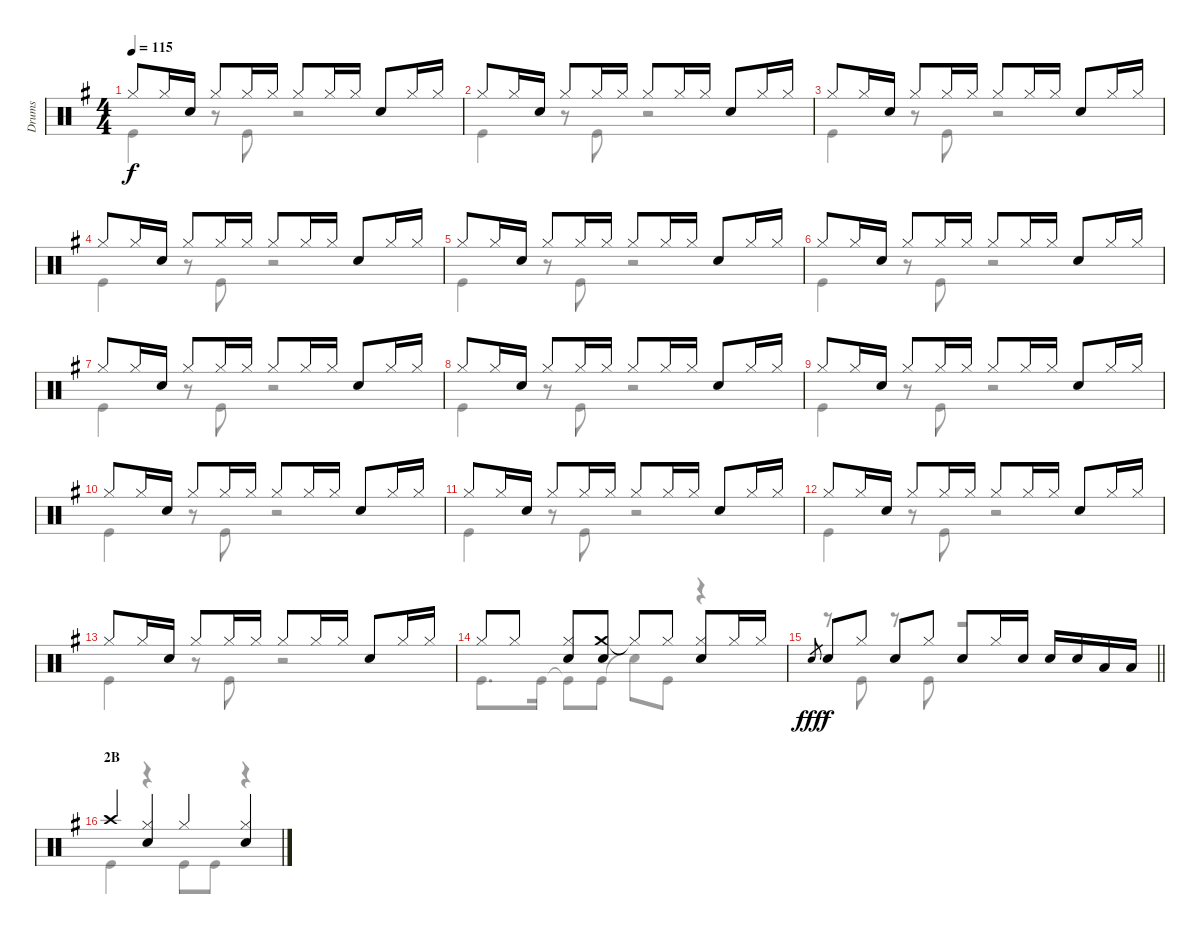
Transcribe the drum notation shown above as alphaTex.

\track ("Drums" "Drums") {instrument percussion}
\staff {score}
\articulation defaults
\voice
\ts (4 4)
\tempo 115
\clef neutral
\ks g "Hi-Hat (closed)".8{dy f} "Hi-Hat (closed)".16 "Snare (hit) 2".16 "Hi-Hat (closed)".8 "Hi-Hat (closed)".16 "Hi-Hat (closed)".16 "Hi-Hat (closed)".8 "Hi-Hat (closed)".16 "Hi-Hat (closed)".16 "Snare (hit) 2".8 "Hi-Hat (closed)".16 "Hi-Hat (closed)".16
|
"Hi-Hat (closed)".8 "Hi-Hat (closed)".16 "Snare (hit) 2".16 "Hi-Hat (closed)".8 "Hi-Hat (closed)".16 "Hi-Hat (closed)".16 "Hi-Hat (closed)".8 "Hi-Hat (closed)".16 "Hi-Hat (closed)".16 "Snare (hit) 2".8 "Hi-Hat (closed)".16 "Hi-Hat (closed)".16 |
"Hi-Hat (closed)".8 "Hi-Hat (closed)".16 "Snare (hit) 2".16 "Hi-Hat (closed)".8 "Hi-Hat (closed)".16 "Hi-Hat (closed)".16 "Hi-Hat (closed)".8 "Hi-Hat (closed)".16 "Hi-Hat (closed)".16 "Snare (hit) 2".8 "Hi-Hat (closed)".16 "Hi-Hat (closed)".16 |
"Hi-Hat (closed)".8 "Hi-Hat (closed)".16 "Snare (hit) 2".16 "Hi-Hat (closed)".8 "Hi-Hat (closed)".16 "Hi-Hat (closed)".16 "Hi-Hat (closed)".8 "Hi-Hat (closed)".16 "Hi-Hat (closed)".16 "Snare (hit) 2".8 "Hi-Hat (closed)".16 "Hi-Hat (closed)".16 |
"Hi-Hat (closed)".8 "Hi-Hat (closed)".16 "Snare (hit) 2".16 "Hi-Hat (closed)".8 "Hi-Hat (closed)".16 "Hi-Hat (closed)".16 "Hi-Hat (closed)".8 "Hi-Hat (closed)".16 "Hi-Hat (closed)".16 "Snare (hit) 2".8 "Hi-Hat (closed)".16 "Hi-Hat (closed)".16 |
"Hi-Hat (closed)".8 "Hi-Hat (closed)".16 "Snare (hit) 2".16 "Hi-Hat (closed)".8 "Hi-Hat (closed)".16 "Hi-Hat (closed)".16 "Hi-Hat (closed)".8 "Hi-Hat (closed)".16 "Hi-Hat (closed)".16 "Snare (hit) 2".8 "Hi-Hat (closed)".16 "Hi-Hat (closed)".16 |
"Hi-Hat (closed)".8 "Hi-Hat (closed)".16 "Snare (hit) 2".16 "Hi-Hat (closed)".8 "Hi-Hat (closed)".16 "Hi-Hat (closed)".16 "Hi-Hat (closed)".8 "Hi-Hat (closed)".16 "Hi-Hat (closed)".16 "Snare (hit) 2".8 "Hi-Hat (closed)".16 "Hi-Hat (closed)".16 |
"Hi-Hat (closed)".8 "Hi-Hat (closed)".16 "Snare (hit) 2".16 "Hi-Hat (closed)".8 "Hi-Hat (closed)".16 "Hi-Hat (closed)".16 "Hi-Hat (closed)".8 "Hi-Hat (closed)".16 "Hi-Hat (closed)".16 "Snare (hit) 2".8 "Hi-Hat (closed)".16 "Hi-Hat (closed)".16 |
"Hi-Hat (closed)".8 "Hi-Hat (closed)".16 "Snare (hit) 2".16 "Hi-Hat (closed)".8 "Hi-Hat (closed)".16 "Hi-Hat (closed)".16 "Hi-Hat (closed)".8 "Hi-Hat (closed)".16 "Hi-Hat (closed)".16 "Snare (hit) 2".8 "Hi-Hat (closed)".16 "Hi-Hat (closed)".16 |
"Hi-Hat (closed)".8 "Hi-Hat (closed)".16 "Snare (hit) 2".16 "Hi-Hat (closed)".8 "Hi-Hat (closed)".16 "Hi-Hat (closed)".16 "Hi-Hat (closed)".8 "Hi-Hat (closed)".16 "Hi-Hat (closed)".16 "Snare (hit) 2".8 "Hi-Hat (closed)".16 "Hi-Hat (closed)".16 |
"Hi-Hat (closed)".8 "Hi-Hat (closed)".16 "Snare (hit) 2".16 "Hi-Hat (closed)".8 "Hi-Hat (closed)".16 "Hi-Hat (closed)".16 "Hi-Hat (closed)".8 "Hi-Hat (closed)".16 "Hi-Hat (closed)".16 "Snare (hit) 2".8 "Hi-Hat (closed)".16 "Hi-Hat (closed)".16 |
"Hi-Hat (closed)".8 "Hi-Hat (closed)".16 "Snare (hit) 2".16 "Hi-Hat (closed)".8 "Hi-Hat (closed)".16 "Hi-Hat (closed)".16 "Hi-Hat (closed)".8 "Hi-Hat (closed)".16 "Hi-Hat (closed)".16 "Snare (hit) 2".8 "Hi-Hat (closed)".16 "Hi-Hat (closed)".16 |
"Hi-Hat (closed)".8 "Hi-Hat (closed)".16 "Snare (hit) 2".16 "Hi-Hat (closed)".8 "Hi-Hat (closed)".16 "Hi-Hat (closed)".16 "Hi-Hat (closed)".8 "Hi-Hat (closed)".16 "Hi-Hat (closed)".16 "Snare (hit) 2".8 "Hi-Hat (closed)".16 "Hi-Hat (closed)".16 |
"Hi-Hat (closed)".8 "Hi-Hat (closed)".8 ("Hi-Hat (closed)" "Snare (hit) 2").8 ("Crash medium (hit)" "Snare (hit) 2").8 "Hi-Hat (closed)"{t}.8 "Hi-Hat (closed)".8 ("Hi-Hat (closed)" "Snare (hit) 2").8 "Hi-Hat (closed)".16 "Hi-Hat (closed)".16 |
\barLineRight lightlight "Snare (hit) 2".8{gr dy fff} "Snare (hit) 2".8{dy f} "Hi-Hat (closed)".8 "Snare (hit) 2".8 "Hi-Hat (closed)".8 "Snare (hit) 2".8 "Hi-Hat (closed)".16 "Snare (hit) 2".16 "Snare (hit) 2".16 "Snare (hit) 2".16 "Low Tom (hit)".16 "Low Tom (hit)".16
|
\section ("" "2B")
"Crash high (hit)".4 ("Hi-Hat (closed)" "Snare (hit) 2").4 "Hi-Hat (closed)".4 ("Hi-Hat (closed)" "Snare (hit) 2").4
\voice
\clef neutral
\ottava regular
\simile none
\ks g "Kick (hit)".4{dy f}
r.8 "Kick (hit)".8 r.2 |
"Kick (hit)".4 r.8 "Kick (hit)".8 r.2 |
"Kick (hit)".4 r.8 "Kick (hit)".8 r.2 |
"Kick (hit)".4 r.8 "Kick (hit)".8 r.2 |
"Kick (hit)".4 r.8 "Kick (hit)".8 r.2 |
"Kick (hit)".4 r.8 "Kick (hit)".8 r.2 |
"Kick (hit)".4 r.8 "Kick (hit)".8 r.2 |
"Kick (hit)".4 r.8 "Kick (hit)".8 r.2 |
"Kick (hit)".4 r.8 "Kick (hit)".8 r.2 |
"Kick (hit)".4 r.8 "Kick (hit)".8 r.2 |
"Kick (hit)".4 r.8 "Kick (hit)".8 r.2 |
"Kick (hit)".4 r.8 "Kick (hit)".8 r.2 |
"Kick (hit)".4 r.8 "Kick (hit)".8 r.2 |
"Kick (hit)".8{d} "Kick (hit)".16 "Kick (hit)"{t}.8 "Kick (hit)".8 "Snare (hit)"{t}.8 "Kick (hit)".8 r.4 |
\barLineRight lightlight
r.8 "Kick (hit)".8 r.8 "Kick (hit)".8 r.2 |
"Kick (hit)".4 r.4 "Kick (hit)".8 "Kick (hit)".8 r.4
